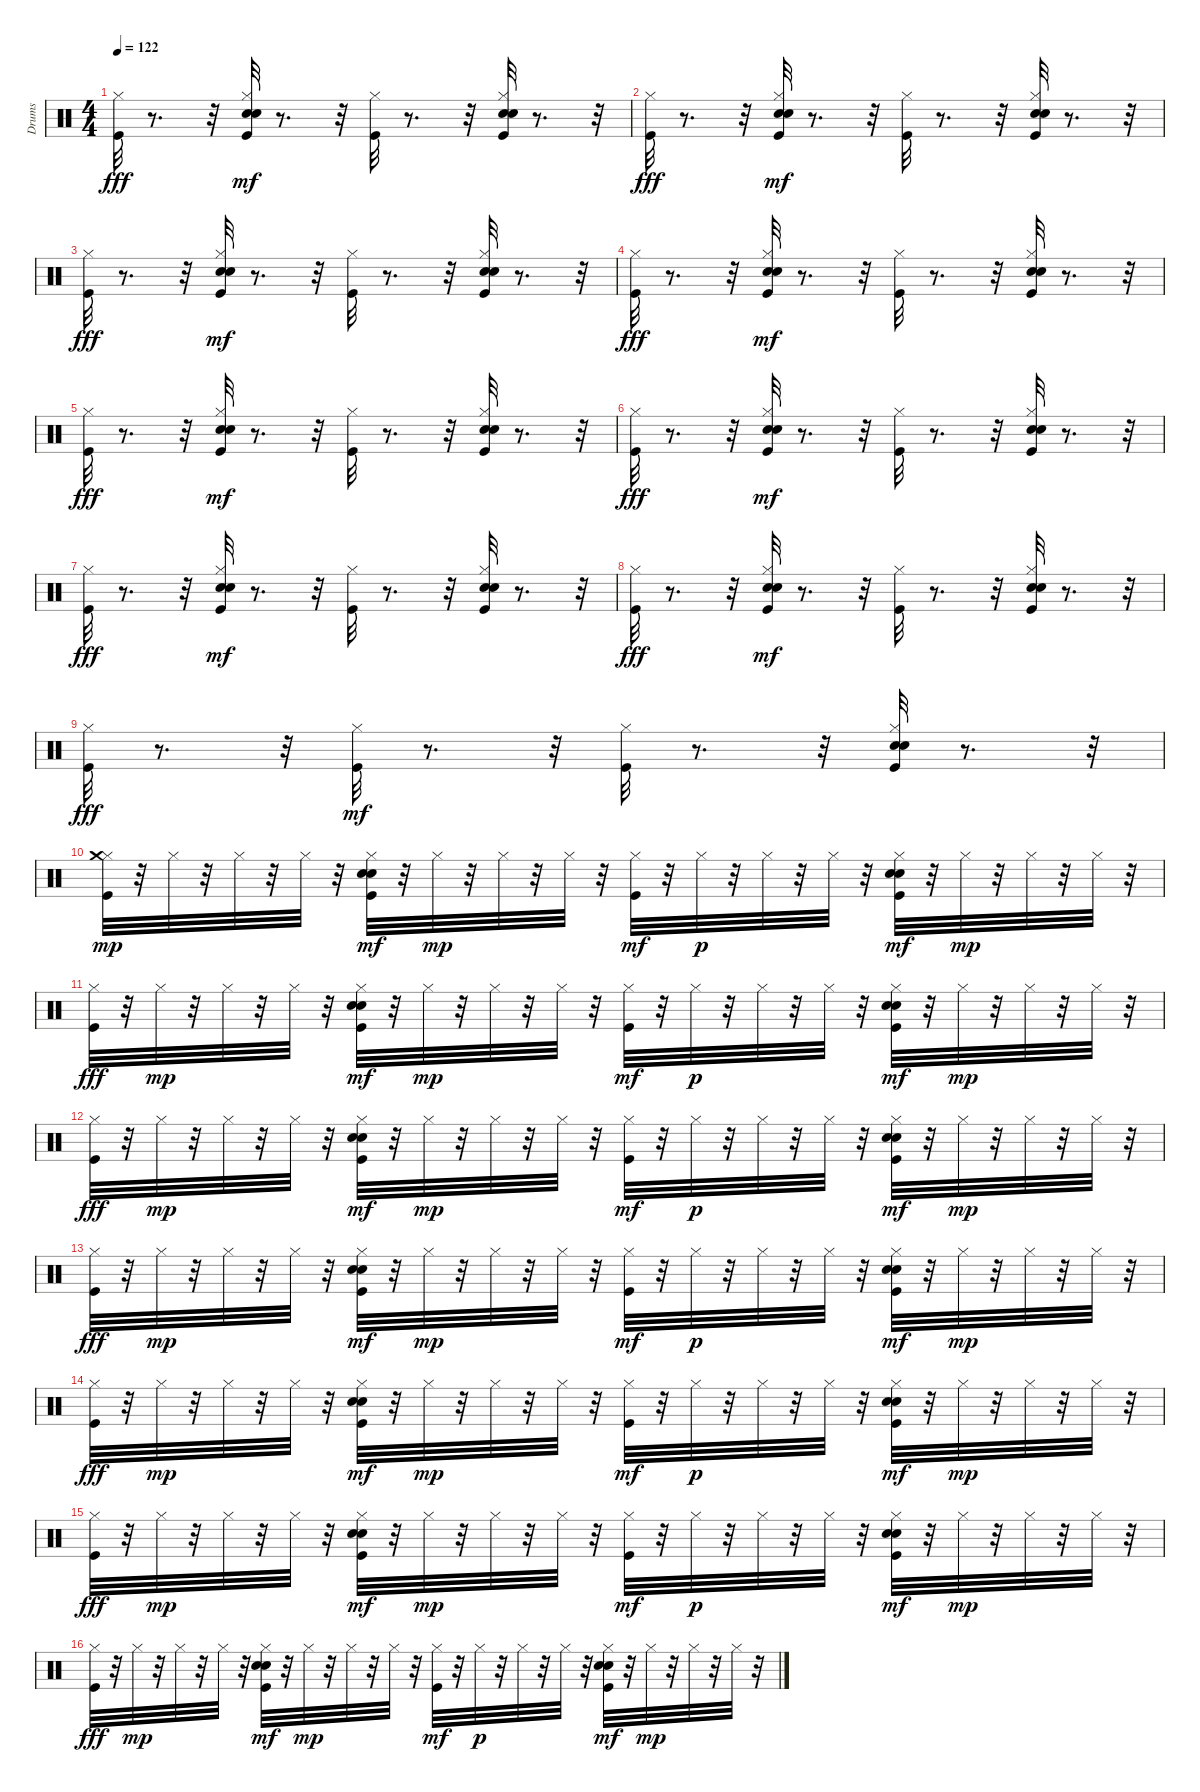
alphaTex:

\track ("Drums" "Drums") {instrument percussion}
\staff {score}
\articulation defaults
\ts (4 4)
\tempo 122
\clef neutral
\ks c
("Kick (hit)" "Hi-Hat (closed)").32{dy fff} r.8{d} r.32 ("Kick (hit)" "Hand Clap (hit)" "Electric Snare (hit)" "Hi-Hat (closed)").32{dy mf} r.8{d} r.32 ("Kick (hit)" "Hi-Hat (closed)").32 r.8{d} r.32 ("Kick (hit)" "Hand Clap (hit)" "Electric Snare (hit)" "Hi-Hat (closed)").32 r.8{d} r.32 |
("Kick (hit)" "Hi-Hat (closed)").32{dy fff} r.8{d} r.32 ("Kick (hit)" "Hand Clap (hit)" "Electric Snare (hit)" "Hi-Hat (closed)").32{dy mf} r.8{d} r.32 ("Kick (hit)" "Hi-Hat (closed)").32 r.8{d} r.32 ("Kick (hit)" "Hand Clap (hit)" "Electric Snare (hit)" "Hi-Hat (closed)").32 r.8{d} r.32 |
("Kick (hit)" "Hi-Hat (closed)").32{dy fff} r.8{d} r.32 ("Kick (hit)" "Hand Clap (hit)" "Electric Snare (hit)" "Hi-Hat (closed)").32{dy mf} r.8{d} r.32 ("Kick (hit)" "Hi-Hat (closed)").32 r.8{d} r.32 ("Kick (hit)" "Hand Clap (hit)" "Electric Snare (hit)" "Hi-Hat (closed)").32 r.8{d} r.32 |
("Kick (hit)" "Hi-Hat (closed)").32{dy fff} r.8{d} r.32 ("Kick (hit)" "Hand Clap (hit)" "Electric Snare (hit)" "Hi-Hat (closed)").32{dy mf} r.8{d} r.32 ("Kick (hit)" "Hi-Hat (closed)").32 r.8{d} r.32 ("Kick (hit)" "Hand Clap (hit)" "Electric Snare (hit)" "Hi-Hat (closed)").32 r.8{d} r.32 |
("Kick (hit)" "Hi-Hat (closed)").32{dy fff} r.8{d} r.32 ("Kick (hit)" "Hand Clap (hit)" "Electric Snare (hit)" "Hi-Hat (closed)").32{dy mf} r.8{d} r.32 ("Kick (hit)" "Hi-Hat (closed)").32 r.8{d} r.32 ("Kick (hit)" "Hand Clap (hit)" "Electric Snare (hit)" "Hi-Hat (closed)").32 r.8{d} r.32 |
("Kick (hit)" "Hi-Hat (closed)").32{dy fff} r.8{d} r.32 ("Kick (hit)" "Hand Clap (hit)" "Electric Snare (hit)" "Hi-Hat (closed)").32{dy mf} r.8{d} r.32 ("Kick (hit)" "Hi-Hat (closed)").32 r.8{d} r.32 ("Kick (hit)" "Hand Clap (hit)" "Electric Snare (hit)" "Hi-Hat (closed)").32 r.8{d} r.32 |
("Kick (hit)" "Hi-Hat (closed)").32{dy fff} r.8{d} r.32 ("Kick (hit)" "Hand Clap (hit)" "Electric Snare (hit)" "Hi-Hat (closed)").32{dy mf} r.8{d} r.32 ("Kick (hit)" "Hi-Hat (closed)").32 r.8{d} r.32 ("Kick (hit)" "Hand Clap (hit)" "Electric Snare (hit)" "Hi-Hat (closed)").32 r.8{d} r.32 |
("Kick (hit)" "Hi-Hat (closed)").32{dy fff} r.8{d} r.32 ("Kick (hit)" "Hand Clap (hit)" "Electric Snare (hit)" "Hi-Hat (closed)").32{dy mf} r.8{d} r.32 ("Kick (hit)" "Hi-Hat (closed)").32 r.8{d} r.32 ("Kick (hit)" "Hand Clap (hit)" "Electric Snare (hit)" "Hi-Hat (closed)").32 r.8{d} r.32 |
("Kick (hit)" "Hi-Hat (closed)").32{dy fff} r.8{d} r.32 ("Kick (hit)" "Hi-Hat (closed)").32{dy mf} r.8{d} r.32 ("Kick (hit)" "Hi-Hat (closed)").32 r.8{d} r.32 ("Kick (hit)" "Hand Clap (hit)" "Electric Snare (hit)" "Hi-Hat (closed)").32 r.8{d} r.32 |
("Kick (hit)" "Hi-Hat (closed)" "Crash medium (hit)").32{dy mp} r.32 "Hi-Hat (closed)".32 r.32 "Hi-Hat (closed)".32 r.32 "Hi-Hat (closed)".32 r.32 ("Kick (hit)" "Hand Clap (hit)" "Electric Snare (hit)" "Hi-Hat (closed)").32{dy mf} r.32 "Hi-Hat (closed)".32{dy mp} r.32 "Hi-Hat (closed)".32 r.32 "Hi-Hat (closed)".32 r.32 ("Kick (hit)" "Hi-Hat (closed)").32{dy mf} r.32 "Hi-Hat (closed)".32{dy p} r.32 "Hi-Hat (closed)".32 r.32 "Hi-Hat (closed)".32 r.32 ("Kick (hit)" "Hand Clap (hit)" "Electric Snare (hit)" "Hi-Hat (closed)").32{dy mf} r.32 "Hi-Hat (closed)".32{dy mp} r.32 "Hi-Hat (closed)".32 r.32 "Hi-Hat (closed)".32 r.32 |
("Kick (hit)" "Hi-Hat (closed)").32{dy fff} r.32 "Hi-Hat (closed)".32{dy mp} r.32 "Hi-Hat (closed)".32 r.32 "Hi-Hat (closed)".32 r.32 ("Kick (hit)" "Hand Clap (hit)" "Electric Snare (hit)" "Hi-Hat (closed)").32{dy mf} r.32 "Hi-Hat (closed)".32{dy mp} r.32 "Hi-Hat (closed)".32 r.32 "Hi-Hat (closed)".32 r.32 ("Kick (hit)" "Hi-Hat (closed)").32{dy mf} r.32 "Hi-Hat (closed)".32{dy p} r.32 "Hi-Hat (closed)".32 r.32 "Hi-Hat (closed)".32 r.32 ("Kick (hit)" "Hand Clap (hit)" "Electric Snare (hit)" "Hi-Hat (closed)").32{dy mf} r.32 "Hi-Hat (closed)".32{dy mp} r.32 "Hi-Hat (closed)".32 r.32 "Hi-Hat (closed)".32 r.32 |
("Kick (hit)" "Hi-Hat (closed)").32{dy fff} r.32 "Hi-Hat (closed)".32{dy mp} r.32 "Hi-Hat (closed)".32 r.32 "Hi-Hat (closed)".32 r.32 ("Kick (hit)" "Hand Clap (hit)" "Electric Snare (hit)" "Hi-Hat (closed)").32{dy mf} r.32 "Hi-Hat (closed)".32{dy mp} r.32 "Hi-Hat (closed)".32 r.32 "Hi-Hat (closed)".32 r.32 ("Kick (hit)" "Hi-Hat (closed)").32{dy mf} r.32 "Hi-Hat (closed)".32{dy p} r.32 "Hi-Hat (closed)".32 r.32 "Hi-Hat (closed)".32 r.32 ("Kick (hit)" "Hand Clap (hit)" "Electric Snare (hit)" "Hi-Hat (closed)").32{dy mf} r.32 "Hi-Hat (closed)".32{dy mp} r.32 "Hi-Hat (closed)".32 r.32 "Hi-Hat (closed)".32 r.32 |
("Kick (hit)" "Hi-Hat (closed)").32{dy fff} r.32 "Hi-Hat (closed)".32{dy mp} r.32 "Hi-Hat (closed)".32 r.32 "Hi-Hat (closed)".32 r.32 ("Kick (hit)" "Hand Clap (hit)" "Electric Snare (hit)" "Hi-Hat (closed)").32{dy mf} r.32 "Hi-Hat (closed)".32{dy mp} r.32 "Hi-Hat (closed)".32 r.32 "Hi-Hat (closed)".32 r.32 ("Kick (hit)" "Hi-Hat (closed)").32{dy mf} r.32 "Hi-Hat (closed)".32{dy p} r.32 "Hi-Hat (closed)".32 r.32 "Hi-Hat (closed)".32 r.32 ("Kick (hit)" "Hand Clap (hit)" "Electric Snare (hit)" "Hi-Hat (closed)").32{dy mf} r.32 "Hi-Hat (closed)".32{dy mp} r.32 "Hi-Hat (closed)".32 r.32 "Hi-Hat (closed)".32 r.32 |
("Kick (hit)" "Hi-Hat (closed)").32{dy fff} r.32 "Hi-Hat (closed)".32{dy mp} r.32 "Hi-Hat (closed)".32 r.32 "Hi-Hat (closed)".32 r.32 ("Kick (hit)" "Hand Clap (hit)" "Electric Snare (hit)" "Hi-Hat (closed)").32{dy mf} r.32 "Hi-Hat (closed)".32{dy mp} r.32 "Hi-Hat (closed)".32 r.32 "Hi-Hat (closed)".32 r.32 ("Kick (hit)" "Hi-Hat (closed)").32{dy mf} r.32 "Hi-Hat (closed)".32{dy p} r.32 "Hi-Hat (closed)".32 r.32 "Hi-Hat (closed)".32 r.32 ("Kick (hit)" "Hand Clap (hit)" "Electric Snare (hit)" "Hi-Hat (closed)").32{dy mf} r.32 "Hi-Hat (closed)".32{dy mp} r.32 "Hi-Hat (closed)".32 r.32 "Hi-Hat (closed)".32 r.32 |
("Kick (hit)" "Hi-Hat (closed)").32{dy fff} r.32 "Hi-Hat (closed)".32{dy mp} r.32 "Hi-Hat (closed)".32 r.32 "Hi-Hat (closed)".32 r.32 ("Kick (hit)" "Hand Clap (hit)" "Electric Snare (hit)" "Hi-Hat (closed)").32{dy mf} r.32 "Hi-Hat (closed)".32{dy mp} r.32 "Hi-Hat (closed)".32 r.32 "Hi-Hat (closed)".32 r.32 ("Kick (hit)" "Hi-Hat (closed)").32{dy mf} r.32 "Hi-Hat (closed)".32{dy p} r.32 "Hi-Hat (closed)".32 r.32 "Hi-Hat (closed)".32 r.32 ("Kick (hit)" "Hand Clap (hit)" "Electric Snare (hit)" "Hi-Hat (closed)").32{dy mf} r.32 "Hi-Hat (closed)".32{dy mp} r.32 "Hi-Hat (closed)".32 r.32 "Hi-Hat (closed)".32 r.32 |
("Kick (hit)" "Hi-Hat (closed)").32{dy fff} r.32 "Hi-Hat (closed)".32{dy mp} r.32 "Hi-Hat (closed)".32 r.32 "Hi-Hat (closed)".32 r.32 ("Kick (hit)" "Hand Clap (hit)" "Electric Snare (hit)" "Hi-Hat (closed)").32{dy mf} r.32 "Hi-Hat (closed)".32{dy mp} r.32 "Hi-Hat (closed)".32 r.32 "Hi-Hat (closed)".32 r.32 ("Kick (hit)" "Hi-Hat (closed)").32{dy mf} r.32 "Hi-Hat (closed)".32{dy p} r.32 "Hi-Hat (closed)".32 r.32 "Hi-Hat (closed)".32 r.32 ("Kick (hit)" "Hand Clap (hit)" "Electric Snare (hit)" "Hi-Hat (closed)").32{dy mf} r.32 "Hi-Hat (closed)".32{dy mp} r.32 "Hi-Hat (closed)".32 r.32 "Hi-Hat (closed)".32 r.32
